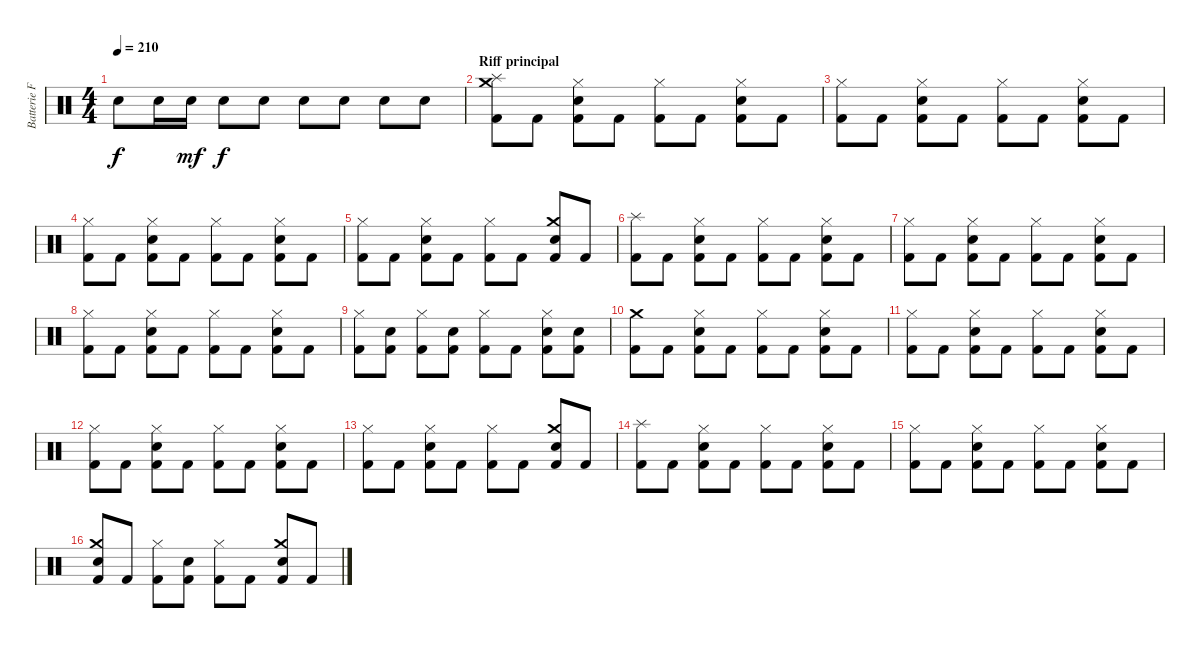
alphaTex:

\track ("Batterie Franck" "Batterie F") {instrument percussion}
\staff {score}
\articulation defaults
\ts (4 4)
\tempo 210
\clef neutral
\ks c "Snare (hit) 2".8{dy f} "Snare (hit) 2".16 "Snare (hit) 2".16{dy mf} "Snare (hit) 2".8{dy f} "Snare (hit) 2".8 "Snare (hit) 2".8 "Snare (hit) 2".8 "Snare (hit) 2".8 "Snare (hit) 2".8
|
\section ("" "Riff principal")
("Crash medium (hit)" "Splash (hit)" "Kick (hit) 2").8 "Kick (hit) 2".8 ("Hi-Hat (closed)" "Snare (hit) 2" "Kick (hit) 2").8 "Kick (hit) 2".8 ("Hi-Hat (closed)" "Kick (hit) 2").8 "Kick (hit) 2".8 ("Hi-Hat (closed)" "Snare (hit) 2" "Kick (hit) 2").8 "Kick (hit) 2".8 |
("Hi-Hat (closed)" "Kick (hit) 2").8 "Kick (hit) 2".8 ("Hi-Hat (closed)" "Snare (hit) 2" "Kick (hit) 2").8 "Kick (hit) 2".8 ("Hi-Hat (closed)" "Kick (hit) 2").8 "Kick (hit) 2".8 ("Hi-Hat (closed)" "Snare (hit) 2" "Kick (hit) 2").8 "Kick (hit) 2".8 |
("Hi-Hat (closed)" "Kick (hit) 2").8 "Kick (hit) 2".8 ("Hi-Hat (closed)" "Snare (hit) 2" "Kick (hit) 2").8 "Kick (hit) 2".8 ("Hi-Hat (closed)" "Kick (hit) 2").8 "Kick (hit) 2".8 ("Hi-Hat (closed)" "Snare (hit) 2" "Kick (hit) 2").8 "Kick (hit) 2".8 |
("Hi-Hat (closed)" "Kick (hit) 2").8 "Kick (hit) 2".8 ("Hi-Hat (closed)" "Snare (hit) 2" "Kick (hit) 2").8 "Kick (hit) 2".8 ("Hi-Hat (closed)" "Kick (hit) 2").8 "Kick (hit) 2".8 ("Crash medium (hit)" "Snare (hit) 2" "Kick (hit) 2").8 "Kick (hit) 2".8 |
("Splash (hit)" "Kick (hit) 2").8 "Kick (hit) 2".8 ("Hi-Hat (closed)" "Snare (hit) 2" "Kick (hit) 2").8 "Kick (hit) 2".8 ("Hi-Hat (closed)" "Kick (hit) 2").8 "Kick (hit) 2".8 ("Hi-Hat (closed)" "Snare (hit) 2" "Kick (hit) 2").8 "Kick (hit) 2".8 |
("Hi-Hat (closed)" "Kick (hit) 2").8 "Kick (hit) 2".8 ("Hi-Hat (closed)" "Snare (hit) 2" "Kick (hit) 2").8 "Kick (hit) 2".8 ("Hi-Hat (closed)" "Kick (hit) 2").8 "Kick (hit) 2".8 ("Hi-Hat (closed)" "Snare (hit) 2" "Kick (hit) 2").8 "Kick (hit) 2".8 |
("Hi-Hat (closed)" "Kick (hit) 2").8 "Kick (hit) 2".8 ("Hi-Hat (closed)" "Snare (hit) 2" "Kick (hit) 2").8 "Kick (hit) 2".8 ("Hi-Hat (closed)" "Kick (hit) 2").8 "Kick (hit) 2".8 ("Hi-Hat (closed)" "Snare (hit) 2" "Kick (hit) 2").8 "Kick (hit) 2".8 |
("Hi-Hat (closed)" "Kick (hit) 2").8 ("Snare (hit) 2" "Kick (hit) 2").8 ("Hi-Hat (closed)" "Kick (hit) 2").8 ("Snare (hit) 2" "Kick (hit) 2").8 ("Hi-Hat (closed)" "Kick (hit) 2").8 "Kick (hit) 2".8 ("Hi-Hat (closed)" "Snare (hit) 2" "Kick (hit) 2").8 ("Snare (hit) 2" "Kick (hit) 2").8 |
("Crash medium (hit)" "Kick (hit) 2").8 "Kick (hit) 2".8 ("Hi-Hat (closed)" "Snare (hit) 2" "Kick (hit) 2").8 "Kick (hit) 2".8 ("Hi-Hat (closed)" "Kick (hit) 2").8 "Kick (hit) 2".8 ("Hi-Hat (closed)" "Snare (hit) 2" "Kick (hit) 2").8 "Kick (hit) 2".8 |
("Hi-Hat (closed)" "Kick (hit) 2").8 "Kick (hit) 2".8 ("Hi-Hat (closed)" "Snare (hit) 2" "Kick (hit) 2").8 "Kick (hit) 2".8 ("Hi-Hat (closed)" "Kick (hit) 2").8 "Kick (hit) 2".8 ("Hi-Hat (closed)" "Snare (hit) 2" "Kick (hit) 2").8 "Kick (hit) 2".8 |
("Hi-Hat (closed)" "Kick (hit) 2").8 "Kick (hit) 2".8 ("Hi-Hat (closed)" "Snare (hit) 2" "Kick (hit) 2").8 "Kick (hit) 2".8 ("Hi-Hat (closed)" "Kick (hit) 2").8 "Kick (hit) 2".8 ("Hi-Hat (closed)" "Snare (hit) 2" "Kick (hit) 2").8 "Kick (hit) 2".8 |
("Hi-Hat (closed)" "Kick (hit) 2").8 "Kick (hit) 2".8 ("Hi-Hat (closed)" "Snare (hit) 2" "Kick (hit) 2").8 "Kick (hit) 2".8 ("Hi-Hat (closed)" "Kick (hit) 2").8 "Kick (hit) 2".8 ("Crash medium (hit)" "Snare (hit) 2" "Kick (hit) 2").8 "Kick (hit) 2".8 |
("Splash (hit)" "Kick (hit) 2").8 "Kick (hit) 2".8 ("Hi-Hat (closed)" "Snare (hit) 2" "Kick (hit) 2").8 "Kick (hit) 2".8 ("Hi-Hat (closed)" "Kick (hit) 2").8 "Kick (hit) 2".8 ("Hi-Hat (closed)" "Snare (hit) 2" "Kick (hit) 2").8 "Kick (hit) 2".8 |
("Hi-Hat (closed)" "Kick (hit) 2").8 "Kick (hit) 2".8 ("Hi-Hat (closed)" "Snare (hit) 2" "Kick (hit) 2").8 "Kick (hit) 2".8 ("Hi-Hat (closed)" "Kick (hit) 2").8 "Kick (hit) 2".8 ("Hi-Hat (closed)" "Snare (hit) 2" "Kick (hit) 2").8 "Kick (hit) 2".8 |
("Crash medium (hit)" "Snare (hit) 2" "Kick (hit) 2").8 "Kick (hit) 2".8 ("Hi-Hat (closed)" "Kick (hit) 2").8 ("Snare (hit) 2" "Kick (hit) 2").8 ("Hi-Hat (closed)" "Kick (hit) 2").8 "Kick (hit) 2".8 ("Crash medium (hit)" "Snare (hit) 2" "Kick (hit) 2").8 "Kick (hit) 2".8
